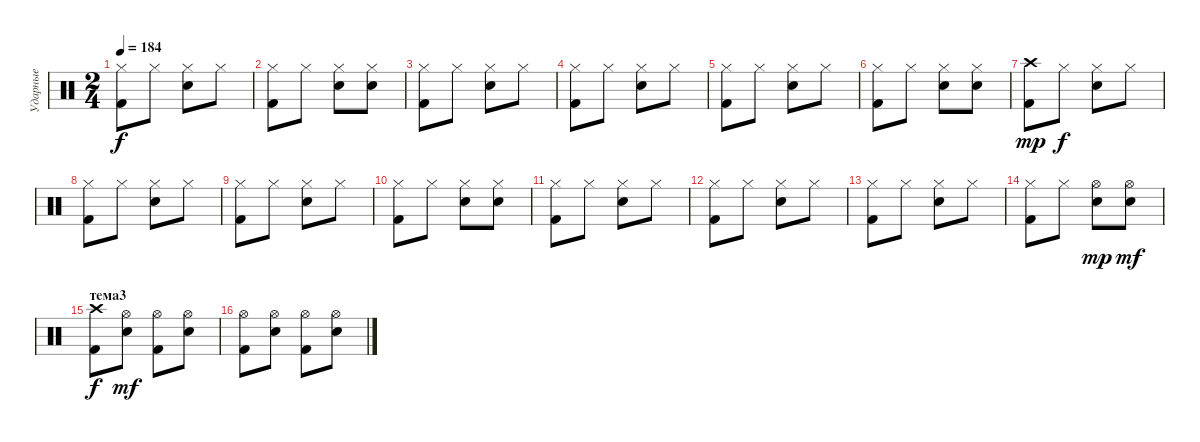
\track ("Ударные" "Ударные") {instrument percussion}
\staff {score}
\articulation defaults
\ts (2 4)
\tempo 184
\clef neutral
\ks c
("Hi-Hat (closed)" "Kick (hit) 2").8{dy f} "Hi-Hat (closed)".8 ("Hi-Hat (closed)" "Snare (hit) 2").8 "Hi-Hat (closed)".8 |
("Hi-Hat (closed)" "Kick (hit) 2").8 "Hi-Hat (closed)".8 ("Hi-Hat (closed)" "Snare (hit) 2").8 ("Hi-Hat (closed)" "Snare (hit) 2").8 |
("Hi-Hat (closed)" "Kick (hit) 2").8 "Hi-Hat (closed)".8 ("Hi-Hat (closed)" "Snare (hit) 2").8 "Hi-Hat (closed)".8 |
("Hi-Hat (closed)" "Kick (hit) 2").8 "Hi-Hat (closed)".8 ("Hi-Hat (closed)" "Snare (hit) 2").8 "Hi-Hat (closed)".8 |
("Hi-Hat (closed)" "Kick (hit) 2").8 "Hi-Hat (closed)".8 ("Hi-Hat (closed)" "Snare (hit) 2").8 "Hi-Hat (closed)".8 |
("Hi-Hat (closed)" "Kick (hit) 2").8 "Hi-Hat (closed)".8 ("Hi-Hat (closed)" "Snare (hit) 2").8 ("Hi-Hat (closed)" "Snare (hit) 2").8 |
("Crash high (hit)" "Kick (hit) 2").8{dy mp} "Hi-Hat (closed)".8{dy f} ("Hi-Hat (closed)" "Snare (hit) 2").8 "Hi-Hat (closed)".8 |
("Hi-Hat (closed)" "Kick (hit) 2").8 "Hi-Hat (closed)".8 ("Hi-Hat (closed)" "Snare (hit) 2").8 "Hi-Hat (closed)".8 |
("Hi-Hat (closed)" "Kick (hit) 2").8 "Hi-Hat (closed)".8 ("Hi-Hat (closed)" "Snare (hit) 2").8 "Hi-Hat (closed)".8 |
("Hi-Hat (closed)" "Kick (hit) 2").8 "Hi-Hat (closed)".8 ("Hi-Hat (closed)" "Snare (hit) 2").8 ("Hi-Hat (closed)" "Snare (hit) 2").8 |
("Hi-Hat (closed)" "Kick (hit) 2").8 "Hi-Hat (closed)".8 ("Hi-Hat (closed)" "Snare (hit) 2").8 "Hi-Hat (closed)".8 |
("Hi-Hat (closed)" "Kick (hit) 2").8 "Hi-Hat (closed)".8 ("Hi-Hat (closed)" "Snare (hit) 2").8 "Hi-Hat (closed)".8 |
("Hi-Hat (closed)" "Kick (hit) 2").8 "Hi-Hat (closed)".8 ("Hi-Hat (closed)" "Snare (hit) 2").8 "Hi-Hat (closed)".8 |
("Hi-Hat (closed)" "Kick (hit) 2").8 "Hi-Hat (closed)".8 ("Hi-Hat (open)" "Snare (hit) 2").8{dy mp} ("Hi-Hat (open)" "Snare (hit) 2").8{dy mf} |
\section ("" "тема3")
("Kick (hit) 2" "Crash high (hit)").8{dy f} ("Snare (hit) 2" "Hi-Hat (open)").8{dy mf} ("Kick (hit) 2" "Hi-Hat (open)").8 ("Snare (hit) 2" "Hi-Hat (open)").8 |
("Kick (hit) 2" "Hi-Hat (open)").8 ("Snare (hit) 2" "Hi-Hat (open)").8 ("Kick (hit) 2" "Hi-Hat (open)").8 ("Snare (hit) 2" "Hi-Hat (open)").8
